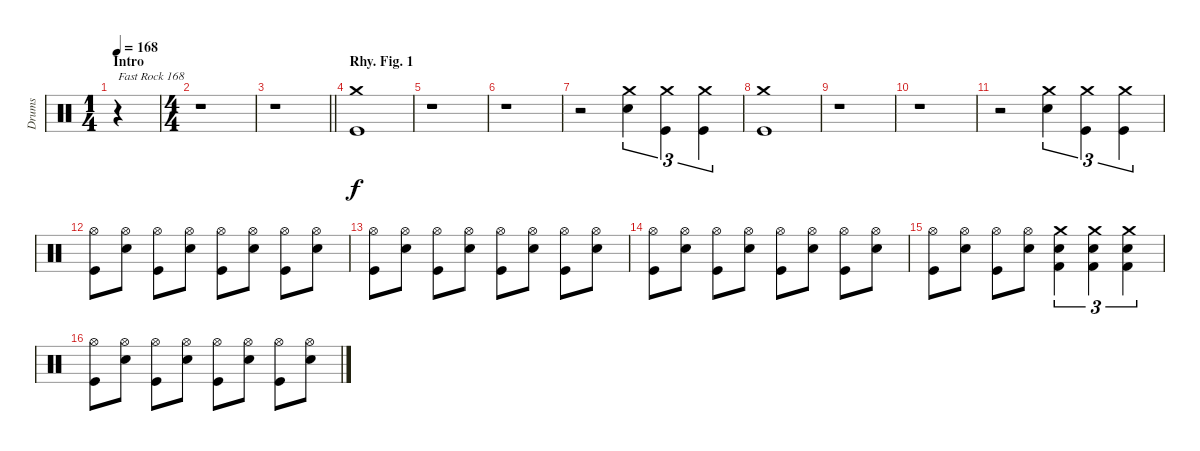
\track ("Drums" "Drums") {instrument percussion}
\staff {score}
\articulation defaults
\ts (1 4)
\section ("" "Intro")
\tempo 168
\clef neutral
\ks c
r.4{txt "Fast Rock 168" dy f} |
\ts (4 4)
r.1 |
\barLineRight lightlight
r.1 |
\section ("" "Rhy. Fig. 1")
("Crash medium (hit)" "Kick (hit)").1 |
r.1 |
r.1 |
r.2 ("Crash medium (hit)" "Snare (hit) 2").4{tu (3 2)} ("Crash medium (hit)" "Kick (hit)").4{tu (3 2)} ("Crash medium (hit)" "Kick (hit)").4{tu (3 2)} |
("Crash medium (hit)" "Kick (hit)").1 |
r.1 |
r.1 |
r.2 ("Crash medium (hit)" "Snare (hit) 2").4{tu (3 2)} ("Crash medium (hit)" "Kick (hit)").4{tu (3 2)} ("Crash medium (hit)" "Kick (hit)").4{tu (3 2)} |
("Hi-Hat (open)" "Kick (hit)").8 ("Hi-Hat (open)" "Snare (hit) 2").8 ("Hi-Hat (open)" "Kick (hit)").8 ("Hi-Hat (open)" "Snare (hit) 2").8 ("Hi-Hat (open)" "Kick (hit)").8 ("Hi-Hat (open)" "Snare (hit) 2").8 ("Hi-Hat (open)" "Kick (hit)").8 ("Hi-Hat (open)" "Snare (hit) 2").8 |
("Hi-Hat (open)" "Kick (hit)").8 ("Hi-Hat (open)" "Snare (hit) 2").8 ("Hi-Hat (open)" "Kick (hit)").8 ("Hi-Hat (open)" "Snare (hit) 2").8 ("Hi-Hat (open)" "Kick (hit)").8 ("Hi-Hat (open)" "Snare (hit) 2").8 ("Hi-Hat (open)" "Kick (hit)").8 ("Hi-Hat (open)" "Snare (hit) 2").8 |
("Hi-Hat (open)" "Kick (hit)").8 ("Hi-Hat (open)" "Snare (hit) 2").8 ("Hi-Hat (open)" "Kick (hit)").8 ("Hi-Hat (open)" "Snare (hit) 2").8 ("Hi-Hat (open)" "Kick (hit)").8 ("Hi-Hat (open)" "Snare (hit) 2").8 ("Hi-Hat (open)" "Kick (hit)").8 ("Hi-Hat (open)" "Snare (hit) 2").8 |
("Hi-Hat (open)" "Kick (hit)").8 ("Hi-Hat (open)" "Snare (hit) 2").8 ("Hi-Hat (open)" "Kick (hit)").8 ("Hi-Hat (open)" "Snare (hit) 2").8 ("Crash medium (hit)" "Snare (hit) 2" "Kick (hit) 2").4{tu (3 2)} ("Crash medium (hit)" "Snare (hit) 2" "Kick (hit) 2").4{tu (3 2)} ("Crash medium (hit)" "Snare (hit) 2" "Kick (hit) 2").4{tu (3 2)} |
("Hi-Hat (open)" "Kick (hit)").8 ("Hi-Hat (open)" "Snare (hit) 2").8 ("Hi-Hat (open)" "Kick (hit)").8 ("Hi-Hat (open)" "Snare (hit) 2").8 ("Hi-Hat (open)" "Kick (hit)").8 ("Hi-Hat (open)" "Snare (hit) 2").8 ("Hi-Hat (open)" "Kick (hit)").8 ("Hi-Hat (open)" "Snare (hit) 2").8
